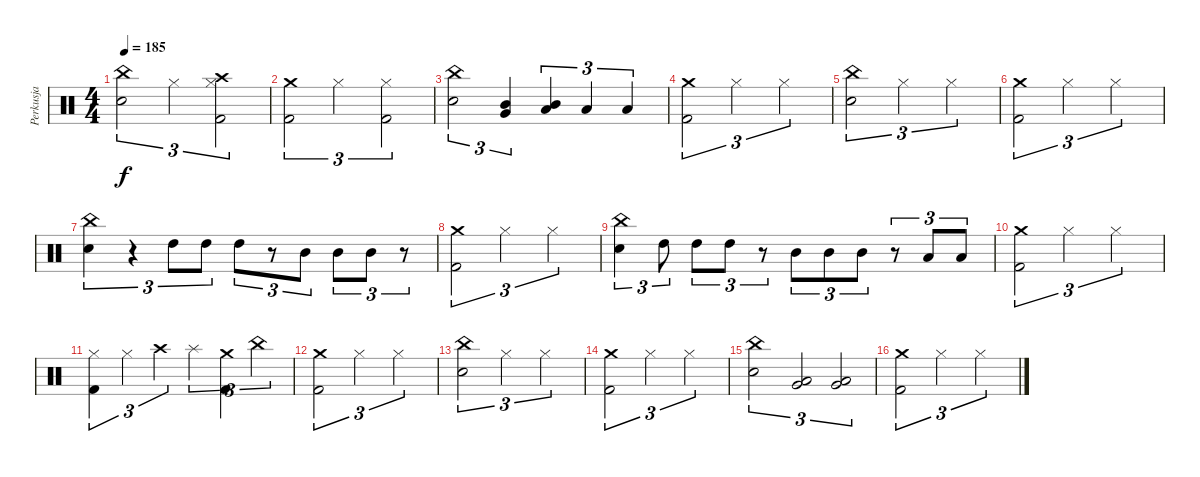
\track ("Perkusja" "Perkusja") {instrument percussion}
\staff {score}
\articulation defaults
\ts (4 4)
\tempo 185
\clef neutral
\ks c
("Snare (hit) 2" "China (hit)").2{tu (3 2) dy f} "Hi-Hat (closed)".2{tu (3 2)} ("Kick (hit) 2" "Crash high (hit)" "Hi-Hat (closed)").2{tu (3 2)} |
("Kick (hit) 2" "Crash medium (hit)").2{tu (3 2)} "Hi-Hat (closed)".2{tu (3 2)} ("Kick (hit) 2" "Hi-Hat (closed)").2{tu (3 2)} |
("China (hit)" "Snare (hit) 2").2{tu (3 2)} ("Mid Tom (hit)" "Very Low Tom (hit)").4{tu (3 2)} ("Mid Tom (hit)" "Low Floor Tom (hit)").4{tu (3 2)} "Low Tom (hit)".4{tu (3 2)} "Low Tom (hit)".4{tu (3 2)} |
("Kick (hit) 2" "Crash medium (hit)").2{tu (3 2)} "Hi-Hat (closed)".2{tu (3 2)} "Hi-Hat (closed)".2{tu (3 2)} |
("Snare (hit) 2" "China (hit)").2{tu (3 2)} "Hi-Hat (closed)".2{tu (3 2)} "Hi-Hat (closed)".2{tu (3 2)} |
("Kick (hit) 2" "Crash medium (hit)").2{tu (3 2)} "Hi-Hat (closed)".2{tu (3 2)} "Hi-Hat (closed)".2{tu (3 2)} |
("Snare (hit) 2" "China (hit)").4{tu (3 2)} r.4{tu (3 2)} "High Tom (hit)".8{tu (3 2)} "High Tom (hit)".8{tu (3 2)} "High Tom (hit)".8{tu (3 2)} r.8{tu (3 2)} "Mid Tom (hit)".8{tu (3 2)} "Mid Tom (hit)".8{tu (3 2)} "Mid Tom (hit)".8{tu (3 2)} r.8{tu (3 2)} |
("Kick (hit) 2" "Crash medium (hit)").2{tu (3 2)} "Hi-Hat (closed)".2{tu (3 2)} "Hi-Hat (closed)".2{tu (3 2)} |
("Snare (hit) 2" "China (hit)").4{tu (3 2)} "High Tom (hit)".8{tu (3 2)} "High Tom (hit)".8{tu (3 2)} "High Tom (hit)".8{tu (3 2)} r.8{tu (3 2)} "Mid Tom (hit)".8{tu (3 2)} "Mid Tom (hit)".8{tu (3 2)} "Mid Tom (hit)".8{tu (3 2)} r.8{tu (3 2)} "Low Tom (hit)".8{tu (3 2)} "Low Tom (hit)".8{tu (3 2)} |
("Kick (hit) 2" "Crash medium (hit)").2{tu (3 2)} "Hi-Hat (closed)".2{tu (3 2)} "Hi-Hat (closed)".2{tu (3 2)} |
("Hi-Hat (closed)" "Kick (hit) 2").4{tu (3 2)} "Hi-Hat (closed)".4{tu (3 2)} "Crash high (hit)".4{tu (3 2)} "Splash (hit)".4{tu (3 2)} ("Crash medium (hit)" "Kick (hit) 2").4{tu (3 2)} "China (hit)".4{tu (3 2)} |
("Kick (hit) 2" "Crash medium (hit)").2{tu (3 2)} "Hi-Hat (closed)".2{tu (3 2)} "Hi-Hat (closed)".2{tu (3 2)} |
("Snare (hit) 2" "China (hit)").2{tu (3 2)} "Hi-Hat (closed)".2{tu (3 2)} "Hi-Hat (closed)".2{tu (3 2)} |
("Kick (hit) 2" "Crash medium (hit)").2{tu (3 2)} "Hi-Hat (closed)".2{tu (3 2)} "Hi-Hat (closed)".2{tu (3 2)} |
("China (hit)" "Snare (hit) 2").2{tu (3 2)} ("Low Tom (hit)" "Very Low Tom (hit)").2{tu (3 2)} ("Very Low Tom (hit)" "Low Floor Tom (hit)").2{tu (3 2)} |
("Kick (hit) 2" "Crash medium (hit)").2{tu (3 2)} "Hi-Hat (closed)".2{tu (3 2)} "Hi-Hat (closed)".2{tu (3 2)}
